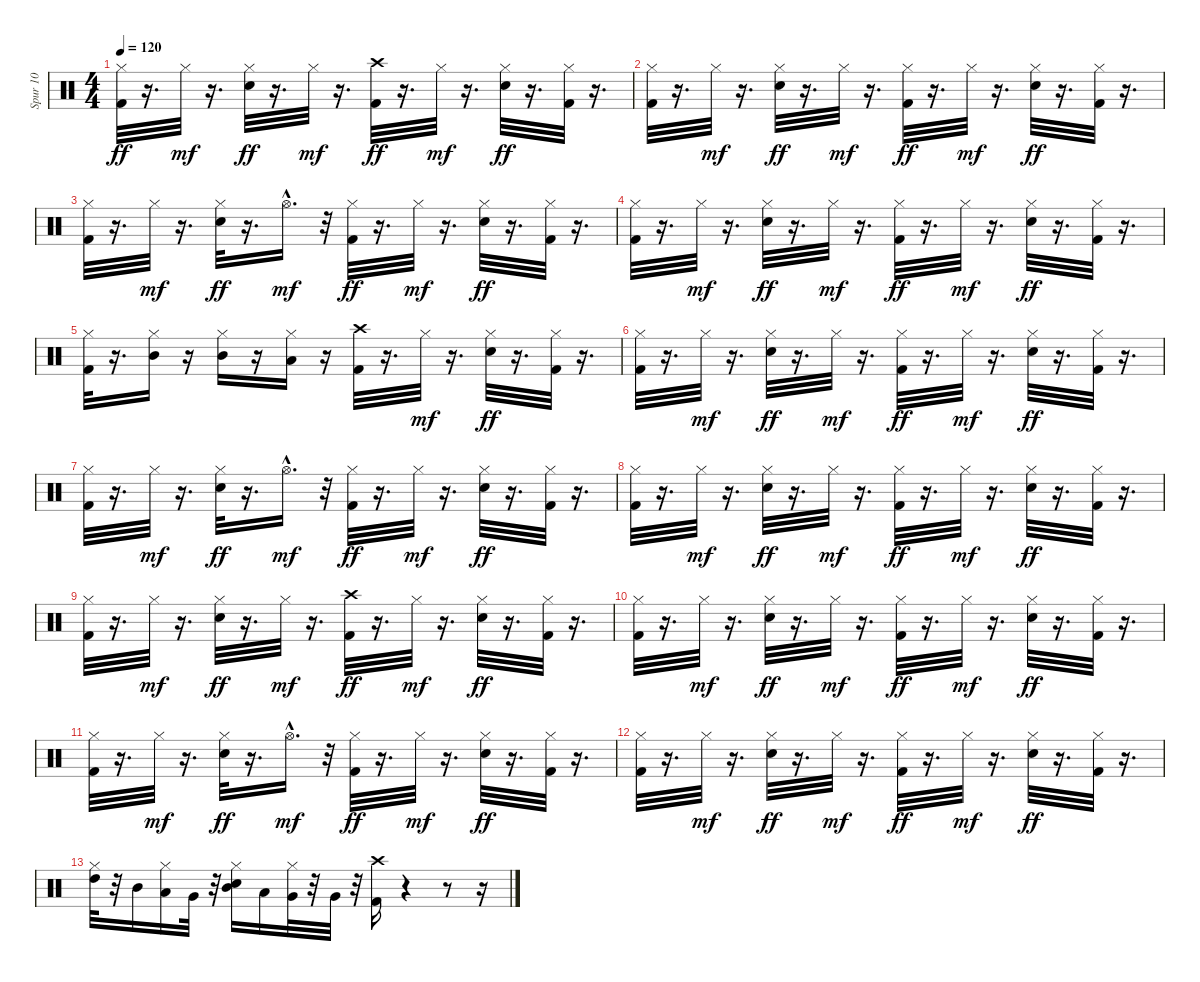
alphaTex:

\track ("Spur 10" "Spur 10") {instrument percussion}
\staff {score}
\articulation defaults
\ts (4 4)
\tempo 120
\clef neutral
\ks c
("Hi-Hat (closed)" "Kick (hit) 2").32{dy ff} r.16{d} "Hi-Hat (closed)".32{dy mf} r.16{d} ("Hi-Hat (closed)" "Snare (hit) 2").32{dy ff} r.16{d} "Hi-Hat (closed)".32{dy mf} r.16{d} ("Crash high (hit)" "Kick (hit) 2").32{dy ff} r.16{d} "Hi-Hat (closed)".32{dy mf} r.16{d} ("Hi-Hat (closed)" "Snare (hit) 2").32{dy ff} r.16{d} ("Hi-Hat (closed)" "Kick (hit) 2").32 r.16{d} |
("Hi-Hat (closed)" "Kick (hit) 2").32 r.16{d} "Hi-Hat (closed)".32{dy mf} r.16{d} ("Hi-Hat (closed)" "Snare (hit) 2").32{dy ff} r.16{d} "Hi-Hat (closed)".32{dy mf} r.16{d} ("Hi-Hat (closed)" "Kick (hit) 2").32{dy ff} r.16{d} "Hi-Hat (closed)".32{dy mf} r.16{d} ("Hi-Hat (closed)" "Snare (hit) 2").32{dy ff} r.16{d} ("Hi-Hat (closed)" "Kick (hit) 2").32 r.16{d} |
("Hi-Hat (closed)" "Kick (hit) 2").32 r.16{d} "Hi-Hat (closed)".32{dy mf} r.16{d} ("Hi-Hat (closed)" "Snare (hit) 2").32{dy ff} r.16{d} "Hi-Hat (open)"{hac}.16{d dy mf} r.32 ("Hi-Hat (closed)" "Kick (hit) 2").32{dy ff} r.16{d} "Hi-Hat (closed)".32{dy mf} r.16{d} ("Hi-Hat (closed)" "Snare (hit) 2").32{dy ff} r.16{d} ("Hi-Hat (closed)" "Kick (hit) 2").32 r.16{d} |
("Hi-Hat (closed)" "Kick (hit) 2").32 r.16{d} "Hi-Hat (closed)".32{dy mf} r.16{d} ("Hi-Hat (closed)" "Snare (hit) 2").32{dy ff} r.16{d} "Hi-Hat (closed)".32{dy mf} r.16{d} ("Hi-Hat (closed)" "Kick (hit) 2").32{dy ff} r.16{d} "Hi-Hat (closed)".32{dy mf} r.16{d} ("Hi-Hat (closed)" "Snare (hit) 2").32{dy ff} r.16{d} ("Hi-Hat (closed)" "Kick (hit) 2").32 r.16{d} |
("Hi-Hat (closed)" "Kick (hit) 2").32 r.16{d} ("Hi-Hat (closed)" "Mid Tom (hit)").16 r.16 ("Hi-Hat (closed)" "Mid Tom (hit)").16 r.16 ("Hi-Hat (closed)" "Low Tom (hit)").16 r.16 ("Crash high (hit)" "Kick (hit) 2").32 r.16{d} "Hi-Hat (closed)".32{dy mf} r.16{d} ("Hi-Hat (closed)" "Snare (hit) 2").32{dy ff} r.16{d} ("Hi-Hat (closed)" "Kick (hit) 2").32 r.16{d} |
("Hi-Hat (closed)" "Kick (hit) 2").32 r.16{d} "Hi-Hat (closed)".32{dy mf} r.16{d} ("Hi-Hat (closed)" "Snare (hit) 2").32{dy ff} r.16{d} "Hi-Hat (closed)".32{dy mf} r.16{d} ("Hi-Hat (closed)" "Kick (hit) 2").32{dy ff} r.16{d} "Hi-Hat (closed)".32{dy mf} r.16{d} ("Hi-Hat (closed)" "Snare (hit) 2").32{dy ff} r.16{d} ("Hi-Hat (closed)" "Kick (hit) 2").32 r.16{d} |
("Hi-Hat (closed)" "Kick (hit) 2").32 r.16{d} "Hi-Hat (closed)".32{dy mf} r.16{d} ("Hi-Hat (closed)" "Snare (hit) 2").32{dy ff} r.16{d} "Hi-Hat (open)"{hac}.16{d dy mf} r.32 ("Hi-Hat (closed)" "Kick (hit) 2").32{dy ff} r.16{d} "Hi-Hat (closed)".32{dy mf} r.16{d} ("Hi-Hat (closed)" "Snare (hit) 2").32{dy ff} r.16{d} ("Hi-Hat (closed)" "Kick (hit) 2").32 r.16{d} |
("Hi-Hat (closed)" "Kick (hit) 2").32 r.16{d} "Hi-Hat (closed)".32{dy mf} r.16{d} ("Hi-Hat (closed)" "Snare (hit) 2").32{dy ff} r.16{d} "Hi-Hat (closed)".32{dy mf} r.16{d} ("Hi-Hat (closed)" "Kick (hit) 2").32{dy ff} r.16{d} "Hi-Hat (closed)".32{dy mf} r.16{d} ("Hi-Hat (closed)" "Snare (hit) 2").32{dy ff} r.16{d} ("Hi-Hat (closed)" "Kick (hit) 2").32 r.16{d} |
("Hi-Hat (closed)" "Kick (hit) 2").32 r.16{d} "Hi-Hat (closed)".32{dy mf} r.16{d} ("Hi-Hat (closed)" "Snare (hit) 2").32{dy ff} r.16{d} "Hi-Hat (closed)".32{dy mf} r.16{d} ("Crash high (hit)" "Kick (hit) 2").32{dy ff} r.16{d} "Hi-Hat (closed)".32{dy mf} r.16{d} ("Hi-Hat (closed)" "Snare (hit) 2").32{dy ff} r.16{d} ("Hi-Hat (closed)" "Kick (hit) 2").32 r.16{d} |
("Hi-Hat (closed)" "Kick (hit) 2").32 r.16{d} "Hi-Hat (closed)".32{dy mf} r.16{d} ("Hi-Hat (closed)" "Snare (hit) 2").32{dy ff} r.16{d} "Hi-Hat (closed)".32{dy mf} r.16{d} ("Hi-Hat (closed)" "Kick (hit) 2").32{dy ff} r.16{d} "Hi-Hat (closed)".32{dy mf} r.16{d} ("Hi-Hat (closed)" "Snare (hit) 2").32{dy ff} r.16{d} ("Hi-Hat (closed)" "Kick (hit) 2").32 r.16{d} |
("Hi-Hat (closed)" "Kick (hit) 2").32 r.16{d} "Hi-Hat (closed)".32{dy mf} r.16{d} ("Hi-Hat (closed)" "Snare (hit) 2").32{dy ff} r.16{d} "Hi-Hat (open)"{hac}.16{d dy mf} r.32 ("Hi-Hat (closed)" "Kick (hit) 2").32{dy ff} r.16{d} "Hi-Hat (closed)".32{dy mf} r.16{d} ("Hi-Hat (closed)" "Snare (hit) 2").32{dy ff} r.16{d} ("Hi-Hat (closed)" "Kick (hit) 2").32 r.16{d} |
("Hi-Hat (closed)" "Kick (hit) 2").32 r.16{d} "Hi-Hat (closed)".32{dy mf} r.16{d} ("Hi-Hat (closed)" "Snare (hit) 2").32{dy ff} r.16{d} "Hi-Hat (closed)".32{dy mf} r.16{d} ("Hi-Hat (closed)" "Kick (hit) 2").32{dy ff} r.16{d} "Hi-Hat (closed)".32{dy mf} r.16{d} ("Hi-Hat (closed)" "Snare (hit) 2").32{dy ff} r.16{d} ("Hi-Hat (closed)" "Kick (hit) 2").32 r.16{d} |
("Hi-Hat (closed)" "High Tom (hit)").32 r.32 "Mid Tom (hit)".16 ("Hi-Hat (closed)" "Low Tom (hit)").16 "Very Low Tom (hit)".32 r.32 ("Hi-Hat (closed)" "Mid Tom (hit)" "Snare (hit) 2").16 "Low Tom (hit)".16 ("Hi-Hat (closed)" "Very Low Tom (hit)").32 r.32 "Very Low Tom (hit)".32 r.32 ("Crash high (hit)" "Kick (hit) 2").16 r.4 r.8 r.16
